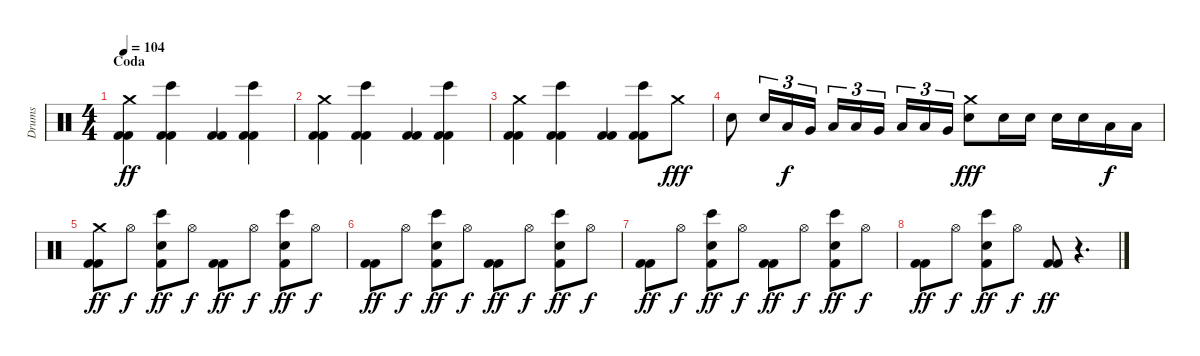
\track ("Drums" "Drums") {instrument percussion}
\staff {score}
\articulation defaults
\ts (4 4)
\section ("" "Coda")
\tempo 104
\clef neutral
\ks c
("Crash medium (hit)" "Kick (hit) 2" "Kick (hit) 2").4{dy ff} ("Bongo High (hit)" "Kick (hit) 2" "Kick (hit) 2").4 ("Kick (hit) 2" "Kick (hit) 2").4 ("Bongo High (hit)" "Kick (hit) 2" "Kick (hit) 2").4 |
("Crash medium (hit)" "Kick (hit) 2" "Kick (hit) 2").4 ("Bongo High (hit)" "Kick (hit) 2" "Kick (hit) 2").4 ("Kick (hit) 2" "Kick (hit) 2").4 ("Bongo High (hit)" "Kick (hit) 2" "Kick (hit) 2").4 |
("Crash medium (hit)" "Kick (hit) 2" "Kick (hit) 2").4 ("Bongo High (hit)" "Kick (hit) 2" "Kick (hit) 2").4 ("Kick (hit) 2" "Kick (hit) 2").4 ("Bongo High (hit)" "Kick (hit) 2" "Kick (hit) 2").8 "Crash medium (hit)".8{dy fff} |
"Electric Snare (hit)".8 "Electric Snare (hit)".16{tu (3 2)} "Low Tom (hit)".16{tu (3 2) dy f} "Very Low Tom (hit)".16{tu (3 2)} "Low Floor Tom (hit)".16{tu (3 2)} "Low Tom (hit)".16{tu (3 2)} "Very Low Tom (hit)".16{tu (3 2)} "Low Floor Tom (hit)".16{tu (3 2)} "Low Tom (hit)".16{tu (3 2)} "Very Low Tom (hit)".16{tu (3 2)} ("Crash medium (hit)" "Electric Snare (hit)").8{dy fff} "Electric Snare (hit)".16 "Electric Snare (hit)".16 "Electric Snare (hit)".16 "Electric Snare (hit)".16 "Low Floor Tom (hit)".16{dy f} "Low Floor Tom (hit)".16 |
("Crash medium (hit)" "Kick (hit) 2" "Kick (hit) 2").8{dy ff} "Hi-Hat (open)".8{dy f} ("Bongo High (hit)" "Snare (hit) 2" "Kick (hit) 2").8{dy ff} "Hi-Hat (open)".8{dy f} ("Kick (hit) 2" "Kick (hit) 2").8{dy ff} "Hi-Hat (open)".8{dy f} ("Bongo High (hit)" "Snare (hit) 2" "Kick (hit) 2").8{dy ff} "Hi-Hat (open)".8{dy f} |
("Kick (hit) 2" "Kick (hit) 2").8{dy ff} "Hi-Hat (open)".8{dy f} ("Bongo High (hit)" "Snare (hit) 2" "Kick (hit) 2").8{dy ff} "Hi-Hat (open)".8{dy f} ("Kick (hit) 2" "Kick (hit) 2").8{dy ff} "Hi-Hat (open)".8{dy f} ("Bongo High (hit)" "Snare (hit) 2" "Kick (hit) 2").8{dy ff} "Hi-Hat (open)".8{dy f} |
("Kick (hit) 2" "Kick (hit) 2").8{dy ff} "Hi-Hat (open)".8{dy f} ("Bongo High (hit)" "Snare (hit) 2" "Kick (hit) 2").8{dy ff} "Hi-Hat (open)".8{dy f} ("Kick (hit) 2" "Kick (hit) 2").8{dy ff} "Hi-Hat (open)".8{dy f} ("Bongo High (hit)" "Snare (hit) 2" "Kick (hit) 2").8{dy ff} "Hi-Hat (open)".8{dy f} |
("Kick (hit) 2" "Kick (hit) 2").8{dy ff} "Hi-Hat (open)".8{dy f} ("Bongo High (hit)" "Snare (hit) 2" "Kick (hit) 2").8{dy ff} "Hi-Hat (open)".8{dy f} ("Kick (hit) 2" "Kick (hit) 2").8{dy ff} r.4{d}
